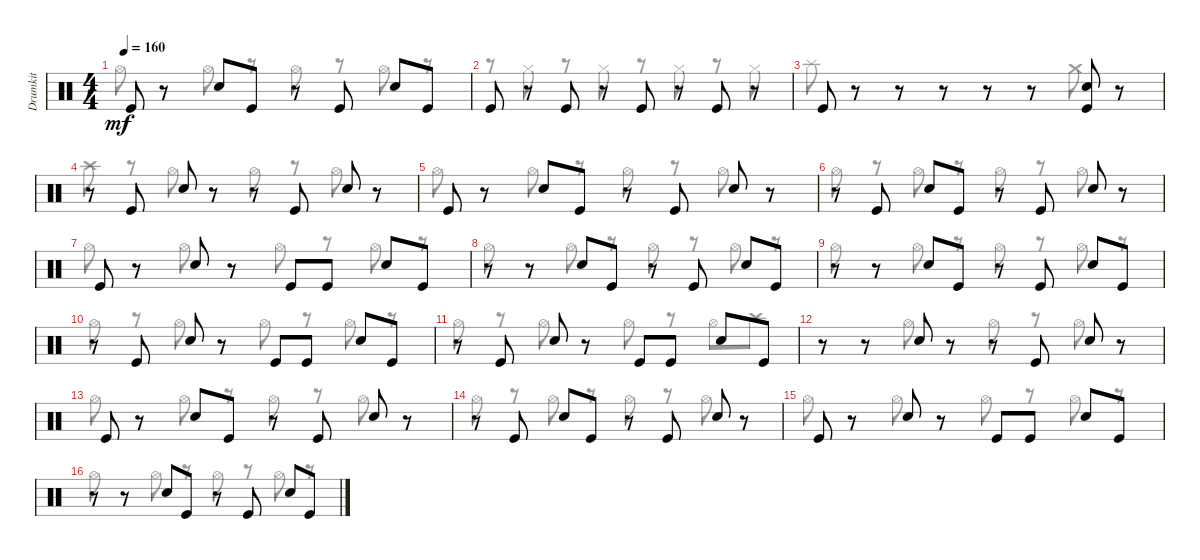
\track ("Drumkit" "Drumkit") {instrument percussion}
\staff {score}
\articulation defaults
\voice
\ts (4 4)
\tempo 160
\clef neutral
\ks c "Kick (hit)".8{dy mf}
r.8 "Snare (hit) 2".8 "Kick (hit)".8 r.8 "Kick (hit)".8 "Snare (hit) 2".8 "Kick (hit)".8 |
"Kick (hit)".8 r.8 "Kick (hit)".8 r.8 "Kick (hit)".8 r.8 "Kick (hit)".8 r.8 |
"Kick (hit)".8 r.8 r.8 r.8 r.8 r.8 ("Kick (hit)" "Snare (hit) 2").8 r.8 |
\section ("" "")
r.8 "Kick (hit)".8 "Snare (hit) 2".8 r.8 r.8 "Kick (hit)".8 "Snare (hit) 2".8 r.8 |
"Kick (hit)".8 r.8 "Snare (hit) 2".8 "Kick (hit)".8 r.8 "Kick (hit)".8 "Snare (hit) 2".8 r.8 |
r.8 "Kick (hit)".8 "Snare (hit) 2".8 "Kick (hit)".8 r.8 "Kick (hit)".8 "Snare (hit) 2".8 r.8 |
"Kick (hit)".8 r.8 "Snare (hit) 2".8 r.8 "Kick (hit)".8 "Kick (hit)".8 "Snare (hit) 2".8 "Kick (hit)".8 |
r.8 r.8 "Snare (hit) 2".8 "Kick (hit)".8 r.8 "Kick (hit)".8 "Snare (hit) 2".8 "Kick (hit)".8 |
r.8 r.8 "Snare (hit) 2".8 "Kick (hit)".8 r.8 "Kick (hit)".8 "Snare (hit) 2".8 "Kick (hit)".8 |
r.8 "Kick (hit)".8 "Snare (hit) 2".8 r.8 "Kick (hit)".8 "Kick (hit)".8 "Snare (hit) 2".8 "Kick (hit)".8 |
r.8 "Kick (hit)".8 "Snare (hit) 2".8 r.8 "Kick (hit)".8 "Kick (hit)".8 "Snare (hit) 2".8 "Kick (hit)".8 |
r.8 r.8 "Snare (hit) 2".8 r.8 r.8 "Kick (hit)".8 "Snare (hit) 2".8 r.8 |
"Kick (hit)".8 r.8 "Snare (hit) 2".8 "Kick (hit)".8 r.8 "Kick (hit)".8 "Snare (hit) 2".8 r.8 |
r.8 "Kick (hit)".8 "Snare (hit) 2".8 "Kick (hit)".8 r.8 "Kick (hit)".8 "Snare (hit) 2".8 r.8 |
"Kick (hit)".8 r.8 "Snare (hit) 2".8 r.8 "Kick (hit)".8 "Kick (hit)".8 "Snare (hit) 2".8 "Kick (hit)".8 |
r.8 r.8 "Snare (hit) 2".8 "Kick (hit)".8 r.8 "Kick (hit)".8 "Snare (hit) 2".8 "Kick (hit)".8
\voice
\clef neutral
\ottava regular
\simile none
\ks c "Hi-Hat (open)".8{dy mf}
r.8 "Hi-Hat (open)".8 r.8 "Hi-Hat (open)".8 r.8 "Hi-Hat (open)".8 r.8 |
r.8 "Hi-Hat (closed)".8 r.8 "Hi-Hat (closed)".8 r.8 "Hi-Hat (closed)".8 r.8 "Hi-Hat (closed)".8 |
"Splash (hit)".8 r.8 r.8 r.8 r.8 r.8 "Crash medium (hit)".8 r.8 |
"Crash high (hit)".8 r.8 "Hi-Hat (open)".8 r.8 "Hi-Hat (open)".8 r.8 "Hi-Hat (open)".8 r.8 |
"Hi-Hat (open)".8 r.8 "Hi-Hat (open)".8 r.8 "Hi-Hat (open)".8 r.8 "Hi-Hat (open)".8 r.8 |
"Hi-Hat (open)".8 r.8 "Hi-Hat (open)".8 r.8 "Hi-Hat (open)".8 r.8 "Hi-Hat (open)".8 r.8 |
"Hi-Hat (open)".8 r.8 "Hi-Hat (open)".8 r.8 "Hi-Hat (open)".8 r.8 "Hi-Hat (open)".8 r.8 |
"Hi-Hat (open)".8 r.8 "Hi-Hat (open)".8 r.8 "Hi-Hat (open)".8 r.8 "Hi-Hat (open)".8 r.8 |
"Hi-Hat (open)".8 r.8 "Hi-Hat (open)".8 r.8 "Hi-Hat (open)".8 r.8 "Hi-Hat (open)".8 r.8 |
"Hi-Hat (open)".8 r.8 "Hi-Hat (open)".8 r.8 "Hi-Hat (open)".8 r.8 "Hi-Hat (open)".8 r.8 |
"Hi-Hat (open)".8 r.8 "Hi-Hat (open)".8 r.8 "Hi-Hat (open)".8 r.8 "Hi-Hat (open)".8 "Crash high (hit)".8 |
r.8 r.8 "Hi-Hat (open)".8 r.8 "Hi-Hat (open)".8 r.8 "Hi-Hat (open)".8 r.8 |
"Hi-Hat (open)".8 r.8 "Hi-Hat (open)".8 r.8 "Hi-Hat (open)".8 r.8 "Hi-Hat (open)".8 r.8 |
"Hi-Hat (open)".8 r.8 "Hi-Hat (open)".8 r.8 "Hi-Hat (open)".8 r.8 "Hi-Hat (open)".8 r.8 |
"Hi-Hat (open)".8 r.8 "Hi-Hat (open)".8 r.8 "Hi-Hat (open)".8 r.8 "Hi-Hat (open)".8 r.8 |
"Hi-Hat (open)".8 r.8 "Hi-Hat (open)".8 r.8 "Hi-Hat (open)".8 r.8 "Hi-Hat (open)".8 r.8
